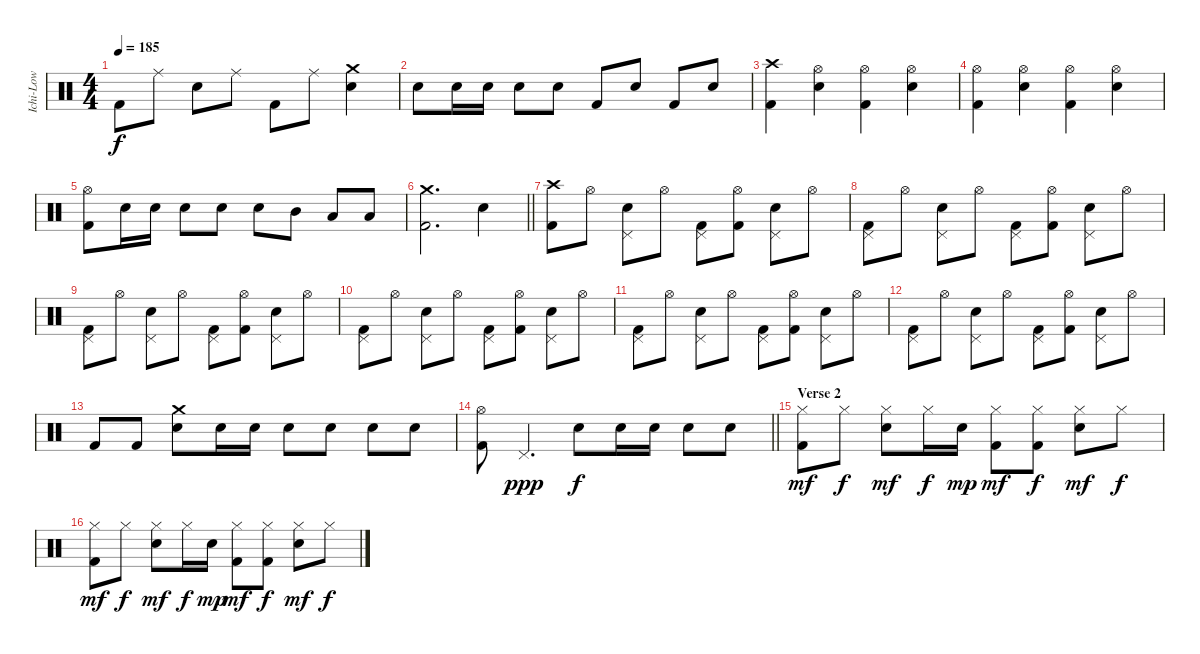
\track ("Ichi-Low" "Ichi-Low") {instrument percussion}
\staff {score}
\articulation defaults
\ts (4 4)
\tempo 185
\clef neutral
\ks c "Kick (hit) 2".8{dy f} "Ride (middle)".8 "Electric Snare (hit)".8 "Ride (middle)".8 "Kick (hit) 2".8 "Ride (middle)".8
("Crash medium (hit)" "Electric Snare (hit)").4 |
"Electric Snare (hit)".8 "Electric Snare (hit)".16 "Electric Snare (hit)".16 "Electric Snare (hit)".8 "Electric Snare (hit)".8 "Kick (hit) 2".8 "Electric Snare (hit)".8 "Kick (hit) 2".8 "Electric Snare (hit)".8 |
("Crash high (hit)" "Kick (hit) 2").4 ("Hi-Hat (open)" "Electric Snare (hit)").4 ("Hi-Hat (open)" "Kick (hit) 2").4 ("Hi-Hat (open)" "Electric Snare (hit)").4 |
("Hi-Hat (open)" "Kick (hit) 2").4 ("Hi-Hat (open)" "Electric Snare (hit)").4 ("Hi-Hat (open)" "Kick (hit) 2").4 ("Hi-Hat (open)" "Electric Snare (hit)").4 |
("Hi-Hat (open)" "Kick (hit) 2").8 "Electric Snare (hit)".16 "Electric Snare (hit)".16 "Electric Snare (hit)".8 "Electric Snare (hit)".8 "Electric Snare (hit)".8 "Mid Tom (hit)".8 "Low Tom (hit)".8 "Low Floor Tom (hit)".8 |
\barLineRight lightlight
("Crash medium (hit)" "Kick (hit) 2").2{d} "Electric Snare (hit)".4 |
\section ("" "")
("Crash high (hit)" "Kick (hit) 2").8 "Hi-Hat (open)".8 ("Pedal Hi-Hat (hit)" "Electric Snare (hit)").8 "Hi-Hat (open)".8 ("Pedal Hi-Hat (hit)" "Kick (hit) 2").8 ("Hi-Hat (open)" "Kick (hit) 2").8 ("Pedal Hi-Hat (hit)" "Electric Snare (hit)").8 "Hi-Hat (open)".8 |
("Pedal Hi-Hat (hit)" "Kick (hit) 2").8 "Hi-Hat (open)".8 ("Pedal Hi-Hat (hit)" "Electric Snare (hit)").8 "Hi-Hat (open)".8 ("Pedal Hi-Hat (hit)" "Kick (hit) 2").8 ("Hi-Hat (open)" "Kick (hit) 2").8 ("Pedal Hi-Hat (hit)" "Electric Snare (hit)").8 "Hi-Hat (open)".8 |
("Pedal Hi-Hat (hit)" "Kick (hit) 2").8 "Hi-Hat (open)".8 ("Pedal Hi-Hat (hit)" "Electric Snare (hit)").8 "Hi-Hat (open)".8 ("Pedal Hi-Hat (hit)" "Kick (hit) 2").8 ("Hi-Hat (open)" "Kick (hit) 2").8 ("Pedal Hi-Hat (hit)" "Electric Snare (hit)").8 "Hi-Hat (open)".8 |
("Pedal Hi-Hat (hit)" "Kick (hit) 2").8 "Hi-Hat (open)".8 ("Pedal Hi-Hat (hit)" "Electric Snare (hit)").8 "Hi-Hat (open)".8 ("Pedal Hi-Hat (hit)" "Kick (hit) 2").8 ("Hi-Hat (open)" "Kick (hit) 2").8 ("Pedal Hi-Hat (hit)" "Electric Snare (hit)").8 "Hi-Hat (open)".8 |
("Pedal Hi-Hat (hit)" "Kick (hit) 2").8 "Hi-Hat (open)".8 ("Pedal Hi-Hat (hit)" "Electric Snare (hit)").8 "Hi-Hat (open)".8 ("Pedal Hi-Hat (hit)" "Kick (hit) 2").8 ("Hi-Hat (open)" "Kick (hit) 2").8 ("Pedal Hi-Hat (hit)" "Electric Snare (hit)").8 "Hi-Hat (open)".8 |
("Pedal Hi-Hat (hit)" "Kick (hit) 2").8 "Hi-Hat (open)".8 ("Pedal Hi-Hat (hit)" "Electric Snare (hit)").8 "Hi-Hat (open)".8 ("Pedal Hi-Hat (hit)" "Kick (hit) 2").8 ("Hi-Hat (open)" "Kick (hit) 2").8 ("Pedal Hi-Hat (hit)" "Electric Snare (hit)").8 "Hi-Hat (open)".8 |
"Kick (hit) 2".8 "Kick (hit) 2".8 ("Crash medium (hit)" "Electric Snare (hit)").8 "Electric Snare (hit)".16 "Electric Snare (hit)".16 "Electric Snare (hit)".8 "Electric Snare (hit)".8 "Electric Snare (hit)".8 "Electric Snare (hit)".8 |
\barLineRight lightlight
("Hi-Hat (open)" "Kick (hit) 2").8 "Pedal Hi-Hat (hit)".4{d dy ppp} "Electric Snare (hit)".8{dy f} "Electric Snare (hit)".16 "Electric Snare (hit)".16 "Electric Snare (hit)".8 "Electric Snare (hit)".8 |
\section ("" "Verse 2")
("Hi-Hat (closed)" "Kick (hit) 2").8{dy mf} "Hi-Hat (closed)".8{dy f} ("Hi-Hat (closed)" "Electric Snare (hit)").8{dy mf} "Hi-Hat (closed)".16{dy f} "Electric Snare (hit)".16{dy mp} ("Hi-Hat (closed)" "Kick (hit) 2").8{dy mf} ("Hi-Hat (closed)" "Kick (hit) 2").8{dy f} ("Hi-Hat (closed)" "Electric Snare (hit)").8{dy mf} "Hi-Hat (closed)".8{dy f} |
("Hi-Hat (closed)" "Kick (hit) 2").8{dy mf} "Hi-Hat (closed)".8{dy f} ("Hi-Hat (closed)" "Electric Snare (hit)").8{dy mf} "Hi-Hat (closed)".16{dy f} "Electric Snare (hit)".16{dy mp} ("Hi-Hat (closed)" "Kick (hit) 2").8{dy mf} ("Hi-Hat (closed)" "Kick (hit) 2").8{dy f} ("Hi-Hat (closed)" "Electric Snare (hit)").8{dy mf} "Hi-Hat (closed)".8{dy f}
